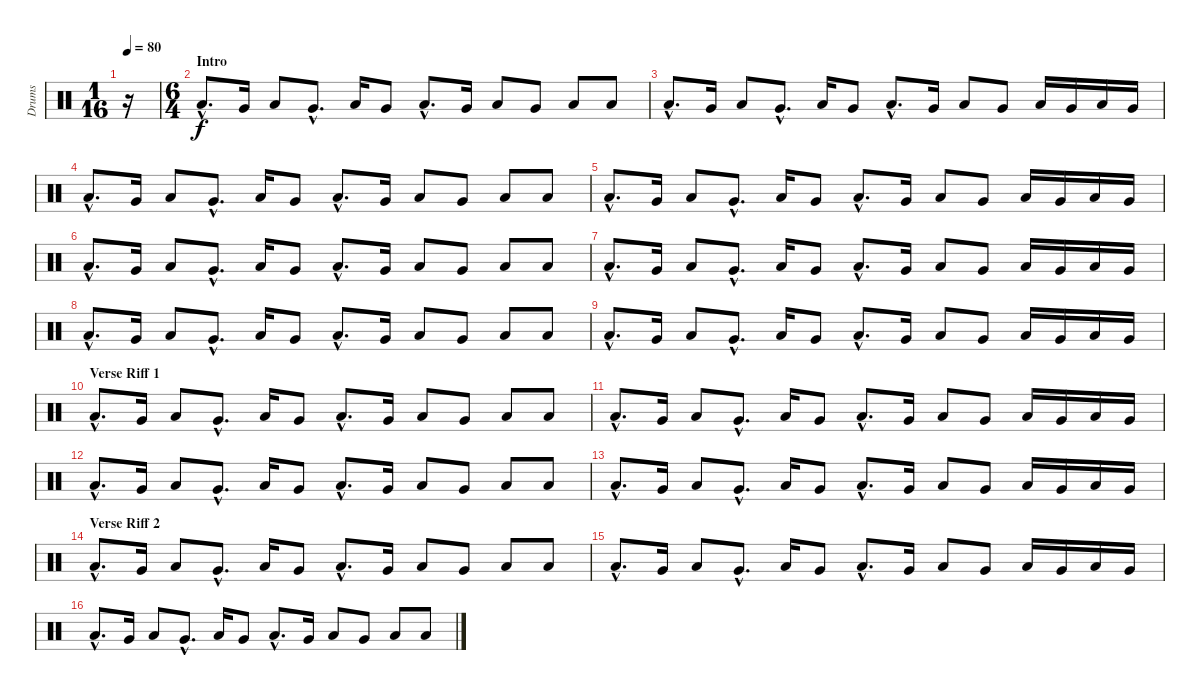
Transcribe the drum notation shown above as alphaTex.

\track ("Drums" "Drums") {instrument percussion}
\staff {score}
\articulation defaults
\ts (1 16)
\tempo 80
\clef neutral
\ks c
r.16{dy f} |
\ts (6 4)
\section ("" "Intro")
"Low Tom (hit)"{hac}.8{d} "Very Low Tom (hit)".16 "Low Tom (hit)".8 "Very Low Tom (hit)"{hac}.8{d} "Low Tom (hit)".16 "Very Low Tom (hit)".8 "Low Floor Tom (hit)"{hac}.8{d} "Very Low Tom (hit)".16 "Low Floor Tom (hit)".8 "Very Low Tom (hit)".8 "Low Tom (hit)".8 "Low Floor Tom (hit)".8 |
"Low Tom (hit)"{hac}.8{d} "Very Low Tom (hit)".16 "Low Tom (hit)".8 "Very Low Tom (hit)"{hac}.8{d} "Low Tom (hit)".16 "Very Low Tom (hit)".8 "Low Floor Tom (hit)"{hac}.8{d} "Very Low Tom (hit)".16 "Low Floor Tom (hit)".8 "Very Low Tom (hit)".8 "Low Tom (hit)".16 "Very Low Tom (hit)".16 "Low Floor Tom (hit)".16 "Very Low Tom (hit)".16 |
"Low Tom (hit)"{hac}.8{d} "Very Low Tom (hit)".16 "Low Tom (hit)".8 "Very Low Tom (hit)"{hac}.8{d} "Low Tom (hit)".16 "Very Low Tom (hit)".8 "Low Floor Tom (hit)"{hac}.8{d} "Very Low Tom (hit)".16 "Low Floor Tom (hit)".8 "Very Low Tom (hit)".8 "Low Tom (hit)".8 "Low Floor Tom (hit)".8 |
"Low Tom (hit)"{hac}.8{d} "Very Low Tom (hit)".16 "Low Tom (hit)".8 "Very Low Tom (hit)"{hac}.8{d} "Low Tom (hit)".16 "Very Low Tom (hit)".8 "Low Floor Tom (hit)"{hac}.8{d} "Very Low Tom (hit)".16 "Low Floor Tom (hit)".8 "Very Low Tom (hit)".8 "Low Floor Tom (hit)".16 "Very Low Tom (hit)".16 "Low Tom (hit)".16 "Very Low Tom (hit)".16 |
"Low Tom (hit)"{hac}.8{d} "Very Low Tom (hit)".16 "Low Tom (hit)".8 "Very Low Tom (hit)"{hac}.8{d} "Low Tom (hit)".16 "Very Low Tom (hit)".8 "Low Floor Tom (hit)"{hac}.8{d} "Very Low Tom (hit)".16 "Low Floor Tom (hit)".8 "Very Low Tom (hit)".8 "Low Tom (hit)".8 "Low Floor Tom (hit)".8 |
"Low Tom (hit)"{hac}.8{d} "Very Low Tom (hit)".16 "Low Tom (hit)".8 "Very Low Tom (hit)"{hac}.8{d} "Low Tom (hit)".16 "Very Low Tom (hit)".8 "Low Floor Tom (hit)"{hac}.8{d} "Very Low Tom (hit)".16 "Low Floor Tom (hit)".8 "Very Low Tom (hit)".8 "Low Tom (hit)".16 "Very Low Tom (hit)".16 "Low Floor Tom (hit)".16 "Very Low Tom (hit)".16 |
"Low Tom (hit)"{hac}.8{d} "Very Low Tom (hit)".16 "Low Tom (hit)".8 "Very Low Tom (hit)"{hac}.8{d} "Low Tom (hit)".16 "Very Low Tom (hit)".8 "Low Floor Tom (hit)"{hac}.8{d} "Very Low Tom (hit)".16 "Low Floor Tom (hit)".8 "Very Low Tom (hit)".8 "Low Tom (hit)".8 "Low Floor Tom (hit)".8 |
"Low Tom (hit)"{hac}.8{d} "Very Low Tom (hit)".16 "Low Tom (hit)".8 "Very Low Tom (hit)"{hac}.8{d} "Low Tom (hit)".16 "Very Low Tom (hit)".8 "Low Floor Tom (hit)"{hac}.8{d} "Very Low Tom (hit)".16 "Low Floor Tom (hit)".8 "Very Low Tom (hit)".8 "Low Floor Tom (hit)".16 "Very Low Tom (hit)".16 "Low Tom (hit)".16 "Very Low Tom (hit)".16 |
\section ("" "Verse Riff 1")
"Low Tom (hit)"{hac}.8{d} "Very Low Tom (hit)".16 "Low Tom (hit)".8 "Very Low Tom (hit)"{hac}.8{d} "Low Tom (hit)".16 "Very Low Tom (hit)".8 "Low Floor Tom (hit)"{hac}.8{d} "Very Low Tom (hit)".16 "Low Floor Tom (hit)".8 "Very Low Tom (hit)".8 "Low Tom (hit)".8 "Low Floor Tom (hit)".8 |
"Low Tom (hit)"{hac}.8{d} "Very Low Tom (hit)".16 "Low Tom (hit)".8 "Very Low Tom (hit)"{hac}.8{d} "Low Tom (hit)".16 "Very Low Tom (hit)".8 "Low Floor Tom (hit)"{hac}.8{d} "Very Low Tom (hit)".16 "Low Floor Tom (hit)".8 "Very Low Tom (hit)".8 "Low Floor Tom (hit)".16 "Very Low Tom (hit)".16 "Low Tom (hit)".16 "Very Low Tom (hit)".16 |
"Low Tom (hit)"{hac}.8{d} "Very Low Tom (hit)".16 "Low Tom (hit)".8 "Very Low Tom (hit)"{hac}.8{d} "Low Tom (hit)".16 "Very Low Tom (hit)".8 "Low Floor Tom (hit)"{hac}.8{d} "Very Low Tom (hit)".16 "Low Floor Tom (hit)".8 "Very Low Tom (hit)".8 "Low Tom (hit)".8 "Low Floor Tom (hit)".8 |
"Low Tom (hit)"{hac}.8{d} "Very Low Tom (hit)".16 "Low Tom (hit)".8 "Very Low Tom (hit)"{hac}.8{d} "Low Tom (hit)".16 "Very Low Tom (hit)".8 "Low Floor Tom (hit)"{hac}.8{d} "Very Low Tom (hit)".16 "Low Floor Tom (hit)".8 "Very Low Tom (hit)".8 "Low Floor Tom (hit)".16 "Very Low Tom (hit)".16 "Low Tom (hit)".16 "Very Low Tom (hit)".16 |
\section ("" "Verse Riff 2")
"Low Tom (hit)"{hac}.8{d} "Very Low Tom (hit)".16 "Low Tom (hit)".8 "Very Low Tom (hit)"{hac}.8{d} "Low Tom (hit)".16 "Very Low Tom (hit)".8 "Low Floor Tom (hit)"{hac}.8{d} "Very Low Tom (hit)".16 "Low Floor Tom (hit)".8 "Very Low Tom (hit)".8 "Low Tom (hit)".8 "Low Floor Tom (hit)".8 |
"Low Tom (hit)"{hac}.8{d} "Very Low Tom (hit)".16 "Low Tom (hit)".8 "Very Low Tom (hit)"{hac}.8{d} "Low Tom (hit)".16 "Very Low Tom (hit)".8 "Low Floor Tom (hit)"{hac}.8{d} "Very Low Tom (hit)".16 "Low Floor Tom (hit)".8 "Very Low Tom (hit)".8 "Low Floor Tom (hit)".16 "Very Low Tom (hit)".16 "Low Tom (hit)".16 "Very Low Tom (hit)".16 |
"Low Tom (hit)"{hac}.8{d} "Very Low Tom (hit)".16 "Low Tom (hit)".8 "Very Low Tom (hit)"{hac}.8{d} "Low Tom (hit)".16 "Very Low Tom (hit)".8 "Low Floor Tom (hit)"{hac}.8{d} "Very Low Tom (hit)".16 "Low Floor Tom (hit)".8 "Very Low Tom (hit)".8 "Low Tom (hit)".8 "Low Floor Tom (hit)".8
